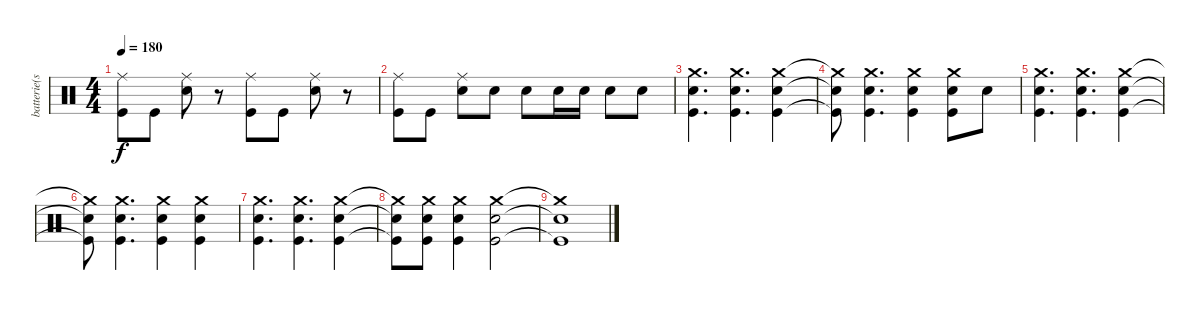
\track ("batterie(scott)" "batterie(s") {instrument percussion}
\staff {score}
\articulation defaults
\ts (4 4)
\tempo 180
\clef neutral
\ks c
("Ride (middle)" "Kick (hit)").8{dy f} "Kick (hit)".8 ("Ride (middle)" "Snare (hit) 2").8 r.8 ("Ride (middle)" "Kick (hit)").8 "Kick (hit)".8 ("Ride (middle)" "Snare (hit) 2").8 r.8 |
("Ride (middle)" "Kick (hit)").8 "Kick (hit)".8 ("Ride (middle)" "Snare (hit) 2").8 "Snare (hit) 2".8 "Snare (hit) 2".8 "Snare (hit) 2".16 "Snare (hit) 2".16 "Snare (hit) 2".8 "Snare (hit) 2".8 |
("Crash medium (hit)" "Snare (hit) 2" "Kick (hit)").4{d} ("Crash medium (hit)" "Snare (hit) 2" "Kick (hit)").4{d} ("Crash medium (hit)" "Snare (hit) 2" "Kick (hit)").4 |
("Crash medium (hit)"{t} "Snare (hit) 2"{t} "Kick (hit)"{t}).8 ("Crash medium (hit)" "Snare (hit) 2" "Kick (hit)").4{d} ("Crash medium (hit)" "Snare (hit) 2" "Kick (hit)").4 ("Crash medium (hit)" "Snare (hit) 2" "Kick (hit)").8 "Snare (hit) 2".8 |
("Crash medium (hit)" "Snare (hit) 2" "Kick (hit)").4{d} ("Crash medium (hit)" "Snare (hit) 2" "Kick (hit)").4{d} ("Crash medium (hit)" "Snare (hit) 2" "Kick (hit)").4 |
("Crash medium (hit)"{t} "Snare (hit) 2"{t} "Kick (hit)"{t}).8 ("Crash medium (hit)" "Snare (hit) 2" "Kick (hit)").4{d} ("Crash medium (hit)" "Snare (hit) 2" "Kick (hit)").4 ("Crash medium (hit)" "Snare (hit) 2" "Kick (hit)").4 |
("Crash medium (hit)" "Snare (hit) 2" "Kick (hit)").4{d} ("Crash medium (hit)" "Snare (hit) 2" "Kick (hit)").4{d} ("Crash medium (hit)" "Snare (hit) 2" "Kick (hit)").4 |
("Crash medium (hit)"{t} "Snare (hit) 2"{t} "Kick (hit)"{t}).8 ("Crash medium (hit)" "Snare (hit) 2" "Kick (hit)").8 ("Crash medium (hit)" "Snare (hit) 2" "Kick (hit)").4 ("Crash medium (hit)" "Snare (hit) 2" "Kick (hit)").2 |
("Crash medium (hit)"{t} "Snare (hit) 2"{t} "Kick (hit)"{t}).1
